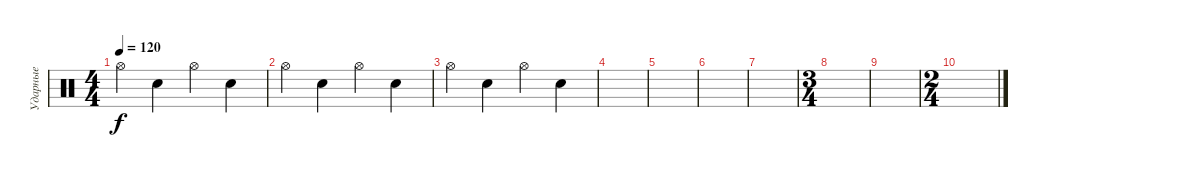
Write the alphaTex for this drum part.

\track ("Ударные" "Ударные") {instrument percussion}
\staff {score}
\articulation defaults
\ts (4 4)
\tempo 120
\clef neutral
\ks c "Hi-Hat (open)".4{dy f} "Electric Snare (hit)".4 "Hi-Hat (open)".4 "Electric Snare (hit)".4
|
"Hi-Hat (open)".4 "Electric Snare (hit)".4 "Hi-Hat (open)".4 "Electric Snare (hit)".4 |
"Hi-Hat (open)".4 "Electric Snare (hit)".4 "Hi-Hat (open)".4 "Electric Snare (hit)".4 |
|
|
|
|
\ts (3 4)
|
|
\ts (2 4)
